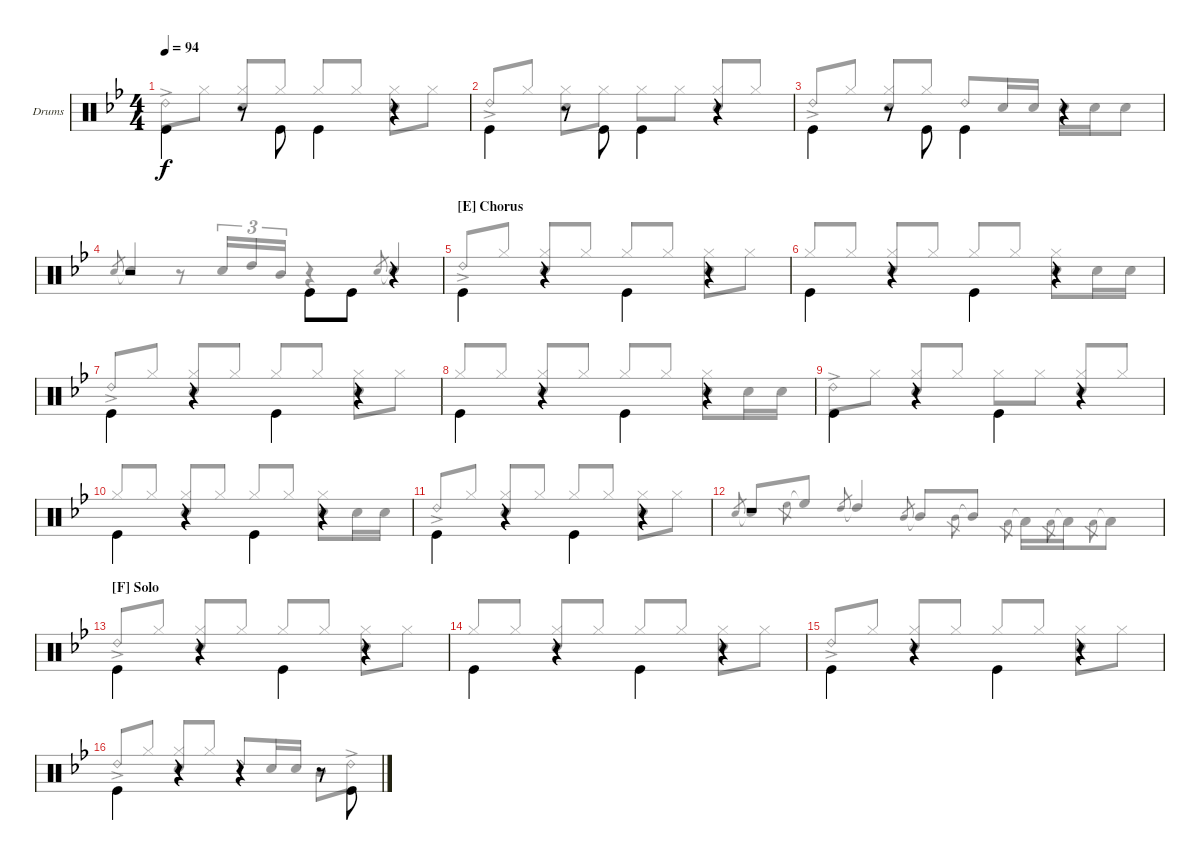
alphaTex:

\bracketExtendMode groupsimilarinstruments
\firstSystemTrackNameOrientation horizontal
\otherSystemsTrackNameOrientation horizontal
\track ("Drum" "Drums") {instrument percussion}
\staff {score}
\articulation defaults
\voice
\ts (4 4)
\tempo 94
\clef neutral
\scale
1.04918
\ks bb "Kick (hit)".4{dy f beam invert}
r.8 "Kick (hit)".8{beam invert} "Kick (hit)".4{beam invert} r.4 |
\scale
0.95082 "Kick (hit)".4{beam invert} r.8 "Kick (hit)".8{beam invert} "Kick (hit)".4{beam invert} r.4 |
\scale
1.04918 "Kick (hit)".4{beam invert} r.8 "Kick (hit)".8{beam invert} "Kick (hit)".4{beam invert} r.4 |
\scale
0.95082 r.2 "Kick (hit)".8{beam invert} "Kick (hit)".8 r.4 |
\section ("E" "Chorus")
\scale
1.04918 "Kick (hit)".4{beam invert} r.4{beam invert} "Kick (hit)".4{beam invert} r.4 |
\scale
0.95082 "Kick (hit)".4{beam invert} r.4{beam invert} "Kick (hit)".4{beam invert} r.4 |
\scale
1.04918 "Kick (hit)".4{beam invert} r.4{beam invert} "Kick (hit)".4{beam invert} r.4 |
\scale
0.95082 "Kick (hit)".4{beam invert} r.4{beam invert} "Kick (hit)".4{beam invert} r.4 |
\scale
1.04918 "Kick (hit)".4{beam invert} r.4{beam invert} "Kick (hit)".4{beam invert} r.4 |
\scale
0.95082 "Kick (hit)".4{beam invert} r.4{beam invert} "Kick (hit)".4{beam invert} r.4 |
\scale
1.04918 "Kick (hit)".4{beam invert} r.4{beam invert} "Kick (hit)".4{beam invert} r.4 |
\scale
0.95082 r.1 |
\section ("F" "Solo")
\scale
1.04918 "Kick (hit)".4{beam invert} r.4{beam invert} "Kick (hit)".4{beam invert} r.4 |
\scale
0.95082 "Kick (hit)".4{beam invert} r.4{beam invert} "Kick (hit)".4{beam invert} r.4 |
\scale
1.04918 "Kick (hit)".4{beam invert} r.4{beam invert} "Kick (hit)".4{beam invert} r.4 |
\scale
0.95082 "Kick (hit)".4{beam invert} r.4{beam invert} r.4 r.8 "Kick (hit)".8{beam invert}
\voice
\clef neutral
\ottava regular
\simile none
\scale
1.04918
\ks bb "Ride (bell) 2"{ac}.8{dy f} "Hi-Hat (closed)".8
("Hi-Hat (closed)" "Snare (hit) 2").8 "Hi-Hat (closed)".8{beam invert} "Hi-Hat (closed)".8{beam invert} "Hi-Hat (closed)".8 ("Hi-Hat (closed)" "Snare (hit) 2").8 "Hi-Hat (closed)".8 |
\scale
0.95082 "Ride (bell) 2"{ac}.8 "Hi-Hat (closed)".8{beam invert} ("Hi-Hat (closed)" "Snare (hit) 2").8 "Hi-Hat (closed)".8 "Hi-Hat (closed)".8 "Hi-Hat (closed)".8 ("Hi-Hat (closed)" "Snare (hit) 2").8 "Hi-Hat (closed)".8{beam invert} |
\scale
1.04918 "Ride (bell) 2"{ac}.8{beam invert} "Hi-Hat (closed)".8 ("Hi-Hat (closed)" "Snare (hit) 2").8 "Hi-Hat (closed)".8 "Ride (bell) 2".8{beam invert} "Snare (hit) 2".16 "Snare (hit) 2".16 "Snare (hit) 2".16 "Snare (hit) 2".16 "Snare (hit) 2".8 |
\scale
0.95082 "Snare (hit) 2".8{gr beam invert} "Snare (hit) 2"{t}.4{beam invert} r.8 "Snare (hit) 2".16{tu (3 2) beam invert} "High Tom (hit)".16{tu (3 2)} "Mid Tom (hit)".16{tu (3 2)} r.4 "Snare (hit) 2".8{gr beam invert} "Snare (hit) 2"{t}.4{beam invert} |
\scale
1.04918 "Ride (bell) 2"{ac}.8{beam invert} "Hi-Hat (closed)".8 ("Hi-Hat (closed)" "Snare (hit) 2").8 "Hi-Hat (closed)".8 "Hi-Hat (closed)".8{beam invert} "Hi-Hat (closed)".8 ("Hi-Hat (closed)" "Snare (hit) 2").8 "Hi-Hat (closed)".8 |
\scale
0.95082 "Hi-Hat (closed)".8{beam invert} "Hi-Hat (closed)".8 ("Hi-Hat (closed)" "Snare (hit) 2").8 "Hi-Hat (closed)".8 "Hi-Hat (closed)".8{beam invert} "Hi-Hat (closed)".8 ("Hi-Hat (closed)" "Snare (hit) 2").8 "Snare (hit) 2".16 "Snare (hit) 2".16 |
\scale
1.04918 "Ride (bell) 2"{ac}.8{beam invert} "Hi-Hat (closed)".8 ("Hi-Hat (closed)" "Snare (hit) 2").8 "Hi-Hat (closed)".8 "Hi-Hat (closed)".8{beam invert} "Hi-Hat (closed)".8 ("Hi-Hat (closed)" "Snare (hit) 2").8 "Hi-Hat (closed)".8 |
\scale
0.95082 "Hi-Hat (closed)".8{beam invert} "Hi-Hat (closed)".8 ("Hi-Hat (closed)" "Snare (hit) 2").8 "Hi-Hat (closed)".8 "Hi-Hat (closed)".8{beam invert} "Hi-Hat (closed)".8 ("Hi-Hat (closed)" "Snare (hit) 2").8 "Snare (hit) 2".16 "Snare (hit) 2".16 |
\scale
1.04918 "Ride (bell) 2"{ac}.8 "Hi-Hat (closed)".8 ("Hi-Hat (closed)" "Snare (hit) 2").8 "Hi-Hat (closed)".8{beam invert} "Hi-Hat (closed)".8 "Hi-Hat (closed)".8 ("Hi-Hat (closed)" "Snare (hit) 2").8 "Hi-Hat (closed)".8{beam invert} |
\scale
0.95082 "Hi-Hat (closed)".8{beam invert} "Hi-Hat (closed)".8 ("Hi-Hat (closed)" "Snare (hit) 2").8 "Hi-Hat (closed)".8 "Hi-Hat (closed)".8{beam invert} "Hi-Hat (closed)".8 ("Hi-Hat (closed)" "Snare (hit) 2").8 "Snare (hit) 2".16 "Snare (hit) 2".16 |
\scale
1.04918 "Ride (bell) 2"{ac}.8{beam invert} "Hi-Hat (closed)".8 ("Hi-Hat (closed)" "Snare (hit) 2").8 "Hi-Hat (closed)".8 "Hi-Hat (closed)".8{beam invert} "Hi-Hat (closed)".8 ("Hi-Hat (closed)" "Snare (hit) 2").8 "Hi-Hat (closed)".8 |
\scale
0.95082 "Snare (hit) 2".8{gr beam invert} "Snare (hit) 2"{t}.8{beam invert} "High Floor Tom (hit)".8{gr} "High Floor Tom (hit)"{t}.8 "High Tom (hit)".8{gr beam invert} "High Tom (hit)"{t}.4{beam invert} "Mid Tom (hit)".8{gr beam invert} "Mid Tom (hit)"{t}.8{beam invert} "Mid Tom (hit)".8{gr} "Mid Tom (hit)"{t}.8 "Low Tom (hit)".8{gr} "Low Tom (hit)"{t}.16 "Low Tom (hit)".8{gr} "Low Tom (hit)"{t}.16 "Low Tom (hit)".8{gr} "Low Tom (hit)"{t}.8 |
\scale
1.04918 "Ride (bell) 2"{ac}.8{beam invert} "Hi-Hat (closed)".8 ("Hi-Hat (closed)" "Snare (hit) 2").8 "Hi-Hat (closed)".8 "Hi-Hat (closed)".8{beam invert} "Hi-Hat (closed)".8 ("Hi-Hat (closed)" "Snare (hit) 2").8 "Hi-Hat (closed)".8 |
\scale
0.95082 "Hi-Hat (closed)".8{beam invert} "Hi-Hat (closed)".8 ("Hi-Hat (closed)" "Snare (hit) 2").8 "Hi-Hat (closed)".8 "Hi-Hat (closed)".8{beam invert} "Hi-Hat (closed)".8 ("Hi-Hat (closed)" "Snare (hit) 2").8 "Hi-Hat (closed)".8 |
\scale
1.04918 "Ride (bell) 2"{ac}.8{beam invert} "Hi-Hat (closed)".8 ("Hi-Hat (closed)" "Snare (hit) 2").8 "Hi-Hat (closed)".8 "Hi-Hat (closed)".8{beam invert} "Hi-Hat (closed)".8 ("Hi-Hat (closed)" "Snare (hit) 2").8 "Hi-Hat (closed)".8 |
\scale
0.95082 "Ride (bell) 2"{ac}.8{beam invert} "Hi-Hat (closed)".8 ("Hi-Hat (closed)" "Snare (hit) 2").8 "Hi-Hat (closed)".8 "Ride (bell) 2".8{beam invert} "Snare (hit) 2".16 "Snare (hit) 2".16 "Mid Tom (hit)".8 "Ride (bell) 2"{ac}.8
